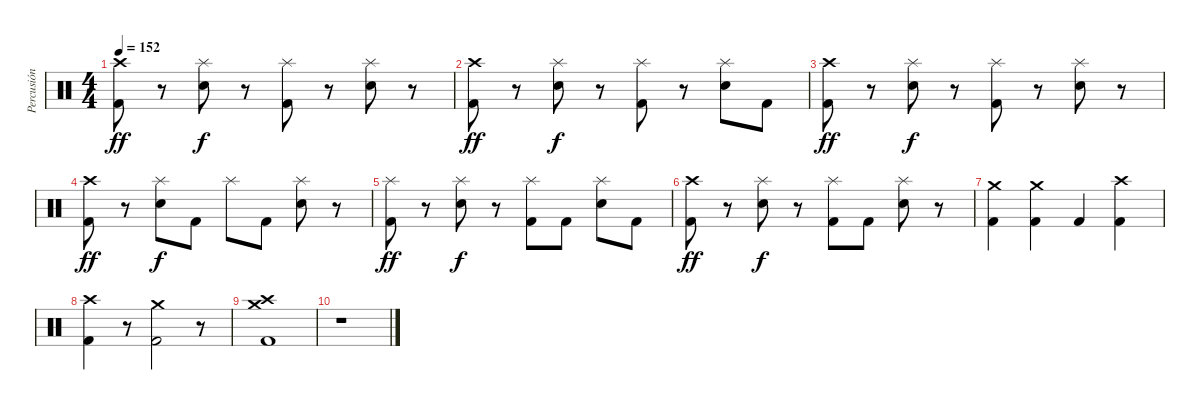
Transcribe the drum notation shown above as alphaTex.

\track ("Percusión" "Percusión") {instrument percussion}
\staff {score}
\articulation defaults
\ts (4 4)
\tempo 152
\clef neutral
\ks c
("Crash high (hit)" "Kick (hit) 2").8{dy ff} r.8 ("Splash (hit)" "Snare (hit) 2").8{dy f} r.8 ("Splash (hit)" "Kick (hit) 2").8 r.8 ("Splash (hit)" "Snare (hit) 2").8 r.8 |
("Crash high (hit)" "Kick (hit) 2").8{dy ff} r.8 ("Splash (hit)" "Snare (hit) 2").8{dy f} r.8 ("Splash (hit)" "Kick (hit) 2").8 r.8 ("Splash (hit)" "Snare (hit) 2").8 "Kick (hit) 2".8 |
("Crash high (hit)" "Kick (hit) 2").8{dy ff} r.8 ("Splash (hit)" "Snare (hit) 2").8{dy f} r.8 ("Splash (hit)" "Kick (hit) 2").8 r.8 ("Splash (hit)" "Snare (hit) 2").8 r.8 |
("Crash high (hit)" "Kick (hit) 2").8{dy ff} r.8 ("Splash (hit)" "Snare (hit) 2").8{dy f} "Kick (hit) 2".8 "Splash (hit)".8 "Kick (hit) 2".8 ("Splash (hit)" "Snare (hit) 2").8 r.8 |
("Splash (hit)" "Kick (hit) 2").8{dy ff} r.8 ("Splash (hit)" "Snare (hit) 2").8{dy f} r.8 ("Splash (hit)" "Kick (hit) 2").8 "Kick (hit) 2".8 ("Splash (hit)" "Snare (hit) 2").8 "Kick (hit) 2".8 |
("Crash high (hit)" "Kick (hit) 2").8{dy ff} r.8 ("Splash (hit)" "Snare (hit) 2").8{dy f} r.8 ("Splash (hit)" "Kick (hit) 2").8 "Kick (hit) 2".8 ("Splash (hit)" "Snare (hit) 2").8 r.8 |
("Crash medium (hit)" "Kick (hit) 2").4 ("Crash medium (hit)" "Kick (hit) 2").4 "Kick (hit) 2".4 ("Crash high (hit)" "Kick (hit) 2").4 |
("Crash high (hit)" "Kick (hit) 2").4 r.8 ("Crash medium (hit)" "Kick (hit) 2").2 r.8 |
("Crash medium (hit)" "Crash high (hit)" "Kick (hit) 2").1 |
r.1
